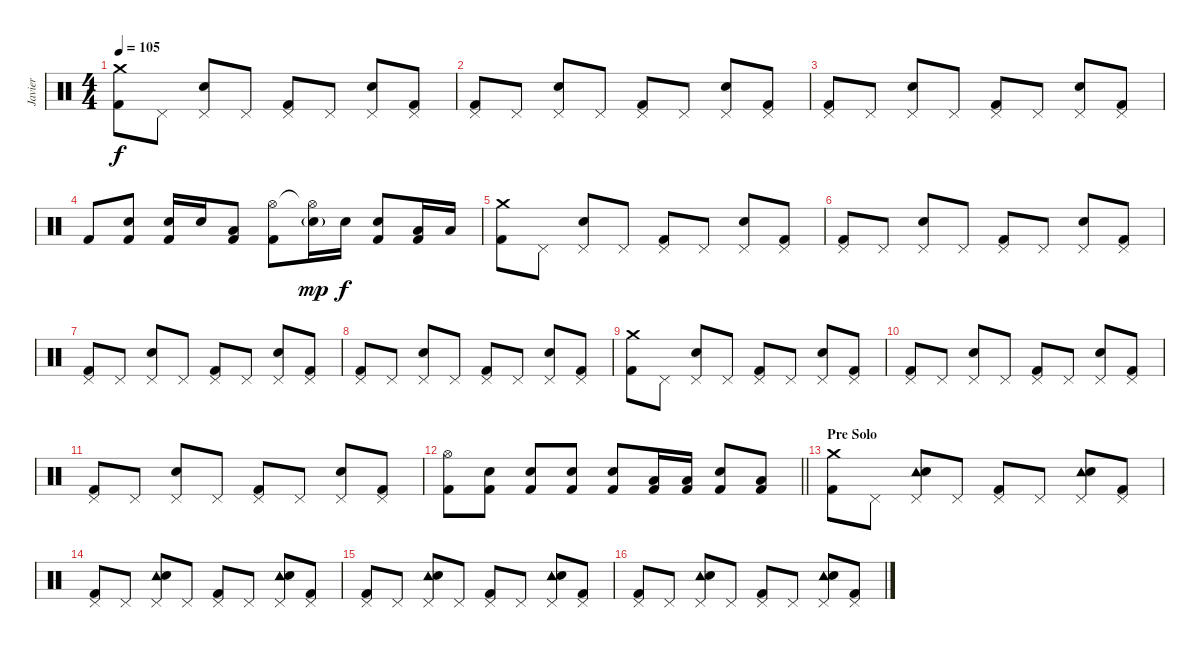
\track ("Javier" "Javier") {instrument percussion}
\staff {score}
\articulation defaults
\ts (4 4)
\tempo 105
\clef neutral
\ks c
("Crash medium (hit)" "Kick (hit) 2").8{dy f} "Pedal Hi-Hat (hit)".8 ("Pedal Hi-Hat (hit)" "Snare (hit) 2").8 "Pedal Hi-Hat (hit)".8 ("Pedal Hi-Hat (hit)" "Kick (hit) 2").8 "Pedal Hi-Hat (hit)".8 ("Pedal Hi-Hat (hit)" "Snare (hit) 2").8 ("Pedal Hi-Hat (hit)" "Kick (hit) 2").8 |
("Pedal Hi-Hat (hit)" "Kick (hit) 2").8 "Pedal Hi-Hat (hit)".8 ("Pedal Hi-Hat (hit)" "Snare (hit) 2").8 "Pedal Hi-Hat (hit)".8 ("Pedal Hi-Hat (hit)" "Kick (hit) 2").8 "Pedal Hi-Hat (hit)".8 ("Pedal Hi-Hat (hit)" "Snare (hit) 2").8 ("Pedal Hi-Hat (hit)" "Kick (hit) 2").8 |
("Pedal Hi-Hat (hit)" "Kick (hit) 2").8 "Pedal Hi-Hat (hit)".8 ("Pedal Hi-Hat (hit)" "Snare (hit) 2").8 "Pedal Hi-Hat (hit)".8 ("Pedal Hi-Hat (hit)" "Kick (hit) 2").8 "Pedal Hi-Hat (hit)".8 ("Pedal Hi-Hat (hit)" "Snare (hit) 2").8 ("Pedal Hi-Hat (hit)" "Kick (hit) 2").8 |
"Kick (hit) 2".8 ("Snare (hit) 2" "Kick (hit) 2").8 ("Snare (hit) 2" "Kick (hit) 2").16 "Snare (hit) 2".16 ("Low Tom (hit)" "Kick (hit) 2").8 ("Hi-Hat (open)" "Kick (hit) 2").8 ("Hi-Hat (open)"{t} "Snare (hit) 2"{g}).16{dy mp} "Snare (hit) 2".16{dy f} ("Snare (hit) 2" "Kick (hit) 2").8 ("Low Tom (hit)" "Kick (hit) 2").16 "Low Tom (hit)".16 |
("Crash medium (hit)" "Kick (hit) 2").8 "Pedal Hi-Hat (hit)".8 ("Pedal Hi-Hat (hit)" "Snare (hit) 2").8 "Pedal Hi-Hat (hit)".8 ("Pedal Hi-Hat (hit)" "Kick (hit) 2").8 "Pedal Hi-Hat (hit)".8 ("Pedal Hi-Hat (hit)" "Snare (hit) 2").8 ("Pedal Hi-Hat (hit)" "Kick (hit) 2").8 |
("Pedal Hi-Hat (hit)" "Kick (hit) 2").8 "Pedal Hi-Hat (hit)".8 ("Pedal Hi-Hat (hit)" "Snare (hit) 2").8 "Pedal Hi-Hat (hit)".8 ("Pedal Hi-Hat (hit)" "Kick (hit) 2").8 "Pedal Hi-Hat (hit)".8 ("Pedal Hi-Hat (hit)" "Snare (hit) 2").8 ("Pedal Hi-Hat (hit)" "Kick (hit) 2").8 |
("Pedal Hi-Hat (hit)" "Kick (hit) 2").8 "Pedal Hi-Hat (hit)".8 ("Pedal Hi-Hat (hit)" "Snare (hit) 2").8 "Pedal Hi-Hat (hit)".8 ("Pedal Hi-Hat (hit)" "Kick (hit) 2").8 "Pedal Hi-Hat (hit)".8 ("Pedal Hi-Hat (hit)" "Snare (hit) 2").8 ("Pedal Hi-Hat (hit)" "Kick (hit) 2").8 |
("Pedal Hi-Hat (hit)" "Kick (hit) 2").8 "Pedal Hi-Hat (hit)".8 ("Pedal Hi-Hat (hit)" "Snare (hit) 2").8 "Pedal Hi-Hat (hit)".8 ("Pedal Hi-Hat (hit)" "Kick (hit) 2").8 "Pedal Hi-Hat (hit)".8 ("Pedal Hi-Hat (hit)" "Snare (hit) 2").8 ("Pedal Hi-Hat (hit)" "Kick (hit) 2").8 |
("Crash medium (hit)" "Kick (hit) 2").8 "Pedal Hi-Hat (hit)".8 ("Pedal Hi-Hat (hit)" "Snare (hit) 2").8 "Pedal Hi-Hat (hit)".8 ("Pedal Hi-Hat (hit)" "Kick (hit) 2").8 "Pedal Hi-Hat (hit)".8 ("Pedal Hi-Hat (hit)" "Snare (hit) 2").8 ("Pedal Hi-Hat (hit)" "Kick (hit) 2").8 |
("Pedal Hi-Hat (hit)" "Kick (hit) 2").8 "Pedal Hi-Hat (hit)".8 ("Pedal Hi-Hat (hit)" "Snare (hit) 2").8 "Pedal Hi-Hat (hit)".8 ("Pedal Hi-Hat (hit)" "Kick (hit) 2").8 "Pedal Hi-Hat (hit)".8 ("Pedal Hi-Hat (hit)" "Snare (hit) 2").8 ("Pedal Hi-Hat (hit)" "Kick (hit) 2").8 |
("Pedal Hi-Hat (hit)" "Kick (hit) 2").8 "Pedal Hi-Hat (hit)".8 ("Pedal Hi-Hat (hit)" "Snare (hit) 2").8 "Pedal Hi-Hat (hit)".8 ("Pedal Hi-Hat (hit)" "Kick (hit) 2").8 "Pedal Hi-Hat (hit)".8 ("Pedal Hi-Hat (hit)" "Snare (hit) 2").8 ("Pedal Hi-Hat (hit)" "Kick (hit) 2").8 |
\barLineRight lightlight
("Hi-Hat (open)" "Kick (hit) 2").8 ("Snare (hit) 2" "Kick (hit) 2").8 ("Snare (hit) 2" "Kick (hit) 2").8 ("Snare (hit) 2" "Kick (hit) 2").8 ("Snare (hit) 2" "Kick (hit) 2").8 ("Low Tom (hit)" "Kick (hit) 2").16 ("Low Tom (hit)" "Kick (hit) 2").16 ("Snare (hit) 2" "Kick (hit) 2").8 ("Low Tom (hit)" "Kick (hit) 2").8 |
\section ("" "Pre Solo")
("Crash medium (hit)" "Kick (hit) 2").8 "Pedal Hi-Hat (hit)".8 ("Pedal Hi-Hat (hit)" "Tambourine (hit)" "Snare (hit) 2").8 "Pedal Hi-Hat (hit)".8 ("Pedal Hi-Hat (hit)" "Kick (hit) 2").8 "Pedal Hi-Hat (hit)".8 ("Pedal Hi-Hat (hit)" "Tambourine (hit)" "Snare (hit) 2").8 ("Pedal Hi-Hat (hit)" "Kick (hit) 2").8 |
("Pedal Hi-Hat (hit)" "Kick (hit) 2").8 "Pedal Hi-Hat (hit)".8 ("Pedal Hi-Hat (hit)" "Tambourine (hit)" "Snare (hit) 2").8 "Pedal Hi-Hat (hit)".8 ("Pedal Hi-Hat (hit)" "Kick (hit) 2").8 "Pedal Hi-Hat (hit)".8 ("Pedal Hi-Hat (hit)" "Tambourine (hit)" "Snare (hit) 2").8 ("Pedal Hi-Hat (hit)" "Kick (hit) 2").8 |
("Pedal Hi-Hat (hit)" "Kick (hit) 2").8 "Pedal Hi-Hat (hit)".8 ("Pedal Hi-Hat (hit)" "Tambourine (hit)" "Snare (hit) 2").8 "Pedal Hi-Hat (hit)".8 ("Pedal Hi-Hat (hit)" "Kick (hit) 2").8 "Pedal Hi-Hat (hit)".8 ("Pedal Hi-Hat (hit)" "Tambourine (hit)" "Snare (hit) 2").8 ("Pedal Hi-Hat (hit)" "Kick (hit) 2").8 |
("Pedal Hi-Hat (hit)" "Kick (hit) 2").8 "Pedal Hi-Hat (hit)".8 ("Pedal Hi-Hat (hit)" "Tambourine (hit)" "Snare (hit) 2").8 "Pedal Hi-Hat (hit)".8 ("Pedal Hi-Hat (hit)" "Kick (hit) 2").8 "Pedal Hi-Hat (hit)".8 ("Pedal Hi-Hat (hit)" "Tambourine (hit)" "Snare (hit) 2").8 ("Pedal Hi-Hat (hit)" "Kick (hit) 2").8
